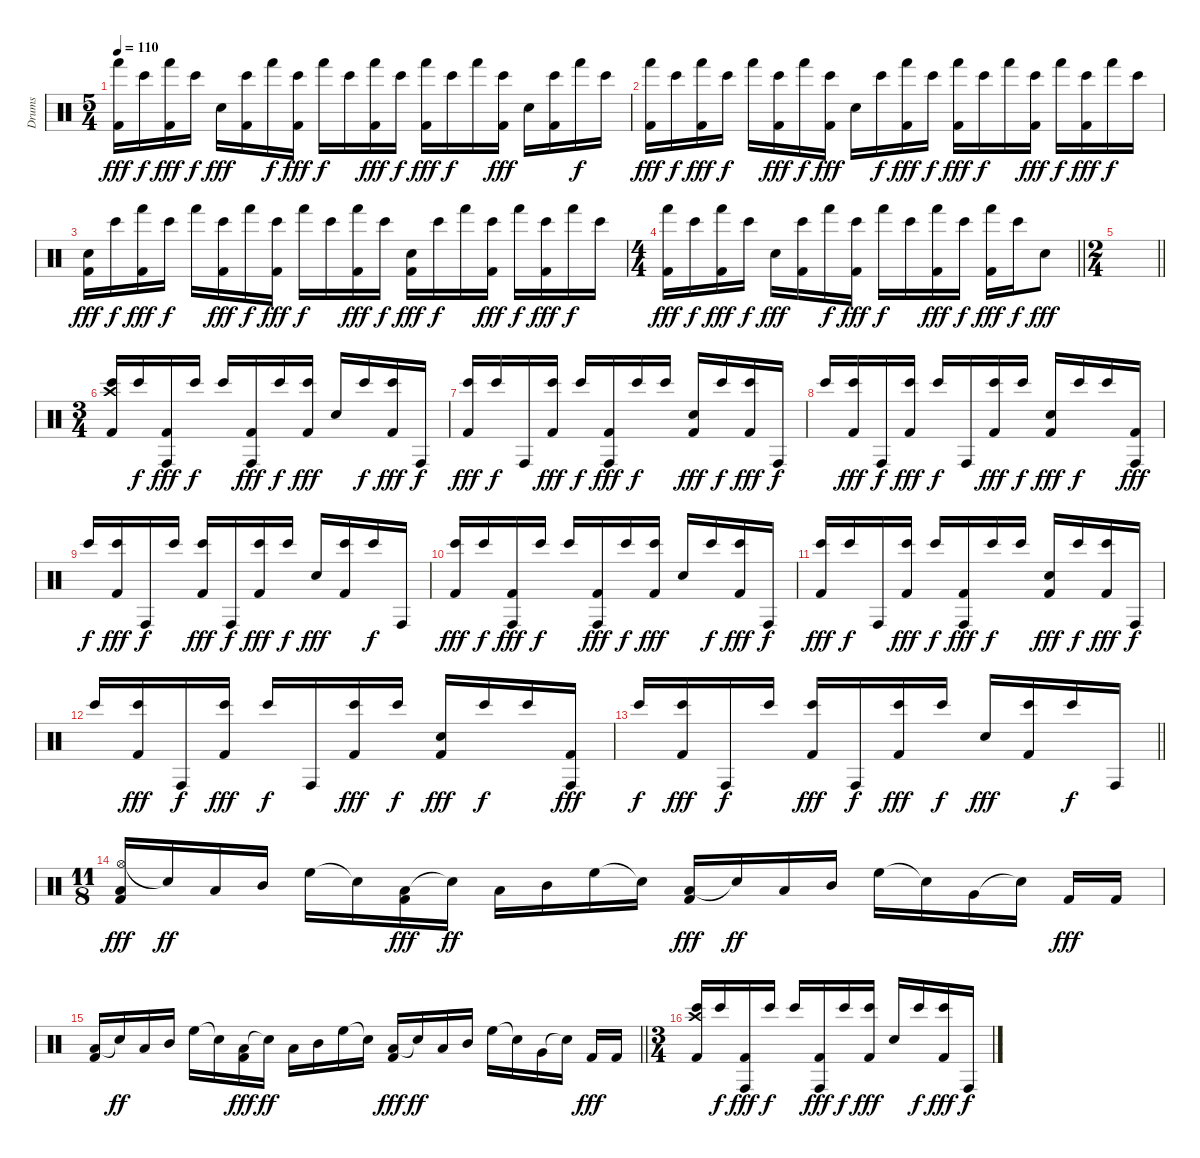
\track ("Drums" "Drums") {instrument percussion}
\staff {score}
\articulation defaults
\ts (5 4)
\tempo 110
\clef neutral
\ks c
("Hand (hit)" "Kick (hit) 2").16{dy fff} "Bongo High (hit)".16{dy f} ("Hand (hit)" "Kick (hit) 2").16{dy fff} "Bongo High (hit)".16{dy f} "Snare (hit) 2".16{dy fff} ("Bongo High (hit)" "Kick (hit) 2").16 "Hand (hit)".16{dy f} ("Bongo High (hit)" "Kick (hit) 2").16{dy fff} "Hand (hit)".16{dy f} "Bongo High (hit)".16 ("Hand (hit)" "Kick (hit) 2").16{dy fff} "Bongo High (hit)".16{dy f} ("Hand (hit)" "Kick (hit) 2").16{dy fff} "Bongo High (hit)".16{dy f} "Hand (hit)".16 ("Bongo High (hit)" "Kick (hit) 2").16{dy fff} "Snare (hit) 2".16 ("Bongo High (hit)" "Kick (hit) 2").16 "Hand (hit)".16{dy f} "Bongo High (hit)".16 |
("Hand (hit)" "Kick (hit) 2").16{dy fff} "Bongo High (hit)".16{dy f} ("Hand (hit)" "Kick (hit) 2").16{dy fff} "Bongo High (hit)".16{dy f} "Hand (hit)".16 ("Bongo High (hit)" "Kick (hit) 2").16{dy fff} "Hand (hit)".16{dy f} ("Bongo High (hit)" "Kick (hit) 2").16{dy fff} "Snare (hit) 2".16 "Bongo High (hit)".16{dy f} ("Hand (hit)" "Kick (hit) 2").16{dy fff} "Bongo High (hit)".16{dy f} ("Hand (hit)" "Kick (hit) 2").16{dy fff} "Bongo High (hit)".16{dy f} "Hand (hit)".16 ("Bongo High (hit)" "Kick (hit) 2").16{dy fff} "Hand (hit)".16{dy f} ("Bongo High (hit)" "Kick (hit) 2").16{dy fff} "Hand (hit)".16{dy f} "Bongo High (hit)".16 |
("Snare (hit) 2" "Kick (hit) 2").16{dy fff} "Bongo High (hit)".16{dy f} ("Hand (hit)" "Kick (hit) 2").16{dy fff} "Bongo High (hit)".16{dy f} "Hand (hit)".16 ("Bongo High (hit)" "Kick (hit) 2").16{dy fff} "Hand (hit)".16{dy f} ("Bongo High (hit)" "Kick (hit) 2").16{dy fff} "Hand (hit)".16{dy f} "Bongo High (hit)".16 ("Hand (hit)" "Kick (hit) 2").16{dy fff} "Bongo High (hit)".16{dy f} ("Snare (hit) 2" "Kick (hit) 2").16{dy fff} "Bongo High (hit)".16{dy f} "Hand (hit)".16 ("Bongo High (hit)" "Kick (hit) 2").16{dy fff} "Hand (hit)".16{dy f} ("Bongo High (hit)" "Kick (hit) 2").16{dy fff} "Hand (hit)".16{dy f} "Bongo High (hit)".16 |
\ts (4 4)
\barLineRight lightlight
("Hand (hit)" "Kick (hit) 2").16{dy fff} "Bongo High (hit)".16{dy f} ("Hand (hit)" "Kick (hit) 2").16{dy fff} "Bongo High (hit)".16{dy f} "Snare (hit) 2".16{dy fff} ("Bongo High (hit)" "Kick (hit) 2").16 "Hand (hit)".16{dy f} ("Bongo High (hit)" "Kick (hit) 2").16{dy fff} "Hand (hit)".16{dy f} "Bongo High (hit)".16 ("Hand (hit)" "Kick (hit) 2").16{dy fff} "Bongo High (hit)".16{dy f} ("Hand (hit)" "Kick (hit) 2").16{dy fff} "Bongo High (hit)".16{dy f} "Snare (hit) 2".8{dy fff} |
\ts (2 4)
\barLineRight lightlight
|
\ts (3 4)
\section ("" "")
("Crash high (hit)" "Bongo High (hit)" "Kick (hit) 2").16 "Bongo High (hit)".16{dy f} ("Conga high (hit)" "Kick (hit) 2").16{dy fff} "Bongo High (hit)".16{dy f} "Bongo High (hit)".16 ("Conga high (hit)" "Kick (hit) 2").16{dy fff} "Bongo High (hit)".16{dy f} ("Bongo High (hit)" "Kick (hit) 2").16{dy fff} "Snare (hit) 2".16 "Bongo High (hit)".16{dy f} ("Bongo High (hit)" "Kick (hit) 2").16{dy fff} "Conga high (hit)".16{dy f} |
("Bongo High (hit)" "Kick (hit) 2").16{dy fff} "Bongo High (hit)".16{dy f} "Conga high (hit)".16 ("Bongo High (hit)" "Kick (hit) 2").16{dy fff} "Bongo High (hit)".16{dy f} ("Conga high (hit)" "Kick (hit) 2").16{dy fff} "Bongo High (hit)".16{dy f} "Bongo High (hit)".16 ("Snare (hit) 2" "Kick (hit) 2").16{dy fff} "Bongo High (hit)".16{dy f} ("Bongo High (hit)" "Kick (hit) 2").16{dy fff} "Conga high (hit)".16{dy f} |
"Bongo High (hit)".16 ("Bongo High (hit)" "Kick (hit) 2").16{dy fff} "Conga high (hit)".16{dy f} ("Bongo High (hit)" "Kick (hit) 2").16{dy fff} "Bongo High (hit)".16{dy f} "Conga high (hit)".16 ("Bongo High (hit)" "Kick (hit) 2").16{dy fff} "Bongo High (hit)".16{dy f} ("Snare (hit) 2" "Kick (hit) 2").16{dy fff} "Bongo High (hit)".16{dy f} "Bongo High (hit)".16 ("Conga high (hit)" "Kick (hit) 2").16{dy fff} |
"Bongo High (hit)".16{dy f} ("Bongo High (hit)" "Kick (hit) 2").16{dy fff} "Conga high (hit)".16{dy f} "Bongo High (hit)".16 ("Bongo High (hit)" "Kick (hit) 2").16{dy fff} "Conga high (hit)".16{dy f} ("Bongo High (hit)" "Kick (hit) 2").16{dy fff} "Bongo High (hit)".16{dy f} "Snare (hit) 2".16{dy fff} ("Bongo High (hit)" "Kick (hit) 2").16 "Bongo High (hit)".16{dy f} "Conga high (hit)".16 |
("Bongo High (hit)" "Kick (hit) 2").16{dy fff} "Bongo High (hit)".16{dy f} ("Conga high (hit)" "Kick (hit) 2").16{dy fff} "Bongo High (hit)".16{dy f} "Bongo High (hit)".16 ("Conga high (hit)" "Kick (hit) 2").16{dy fff} "Bongo High (hit)".16{dy f} ("Bongo High (hit)" "Kick (hit) 2").16{dy fff} "Snare (hit) 2".16 "Bongo High (hit)".16{dy f} ("Bongo High (hit)" "Kick (hit) 2").16{dy fff} "Conga high (hit)".16{dy f} |
("Bongo High (hit)" "Kick (hit) 2").16{dy fff} "Bongo High (hit)".16{dy f} "Conga high (hit)".16 ("Bongo High (hit)" "Kick (hit) 2").16{dy fff} "Bongo High (hit)".16{dy f} ("Conga high (hit)" "Kick (hit) 2").16{dy fff} "Bongo High (hit)".16{dy f} "Bongo High (hit)".16 ("Snare (hit) 2" "Kick (hit) 2").16{dy fff} "Bongo High (hit)".16{dy f} ("Bongo High (hit)" "Kick (hit) 2").16{dy fff} "Conga high (hit)".16{dy f} |
"Bongo High (hit)".16 ("Bongo High (hit)" "Kick (hit) 2").16{dy fff} "Conga high (hit)".16{dy f} ("Bongo High (hit)" "Kick (hit) 2").16{dy fff} "Bongo High (hit)".16{dy f} "Conga high (hit)".16 ("Bongo High (hit)" "Kick (hit) 2").16{dy fff} "Bongo High (hit)".16{dy f} ("Snare (hit) 2" "Kick (hit) 2").16{dy fff} "Bongo High (hit)".16{dy f} "Bongo High (hit)".16 ("Conga high (hit)" "Kick (hit) 2").16{dy fff} |
\barLineRight lightlight "Bongo High (hit)".16{dy f}
("Bongo High (hit)" "Kick (hit) 2").16{dy fff} "Conga high (hit)".16{dy f} "Bongo High (hit)".16 ("Bongo High (hit)" "Kick (hit) 2").16{dy fff} "Conga high (hit)".16{dy f} ("Bongo High (hit)" "Kick (hit) 2").16{dy fff} "Bongo High (hit)".16{dy f} "Snare (hit) 2".16{dy fff} ("Bongo High (hit)" "Kick (hit) 2").16 "Bongo High (hit)".16{dy f} "Conga high (hit)".16 |
\ts (11 8)
\section ("" "")
("Hi-Hat (open)" "Low Tom (hit)" "Kick (hit) 2").16{dy fff} "Snare (hit)"{t}.16{dy ff} "Low Tom (hit)".16 "Mid Tom (hit)".16 "High Floor Tom (hit)".16 "Snare (hit)"{t}.16 ("Low Tom (hit)" "Kick (hit) 2").16{dy fff} "Snare (hit)"{t}.16{dy ff} "Low Tom (hit)".16 "Mid Tom (hit)".16 "High Floor Tom (hit)".16 "Snare (hit)"{t}.16 ("Low Tom (hit)" "Kick (hit) 2").16{dy fff} "Snare (hit)"{t}.16{dy ff} "Low Tom (hit)".16 "Mid Tom (hit)".16 "High Floor Tom (hit)".16 "Snare (hit)"{t}.16 "Very Low Tom (hit)".16 "Snare (hit)"{t}.16 "Kick (hit) 2".16{dy fff} "Kick (hit) 2".16 |
\barLineRight lightlight
("Low Tom (hit)" "Kick (hit) 2").16 "Snare (hit)"{t}.16{dy ff} "Low Tom (hit)".16 "Mid Tom (hit)".16 "High Floor Tom (hit)".16 "Snare (hit)"{t}.16 ("Low Tom (hit)" "Kick (hit) 2").16{dy fff} "Snare (hit)"{t}.16{dy ff} "Low Tom (hit)".16 "Mid Tom (hit)".16 "High Floor Tom (hit)".16 "Snare (hit)"{t}.16 ("Low Tom (hit)" "Kick (hit) 2").16{dy fff} "Snare (hit)"{t}.16{dy ff} "Low Tom (hit)".16 "Mid Tom (hit)".16 "High Floor Tom (hit)".16 "Snare (hit)"{t}.16 "Very Low Tom (hit)".16 "Snare (hit)"{t}.16 "Kick (hit) 2".16{dy fff} "Kick (hit) 2".16 |
\ts (3 4)
\section ("" "")
("Crash high (hit)" "Bongo High (hit)" "Kick (hit) 2").16 "Bongo High (hit)".16{dy f} ("Conga high (hit)" "Kick (hit) 2").16{dy fff} "Bongo High (hit)".16{dy f} "Bongo High (hit)".16 ("Conga high (hit)" "Kick (hit) 2").16{dy fff} "Bongo High (hit)".16{dy f} ("Bongo High (hit)" "Kick (hit) 2").16{dy fff} "Snare (hit) 2".16 "Bongo High (hit)".16{dy f} ("Bongo High (hit)" "Kick (hit) 2").16{dy fff} "Conga high (hit)".16{dy f}
